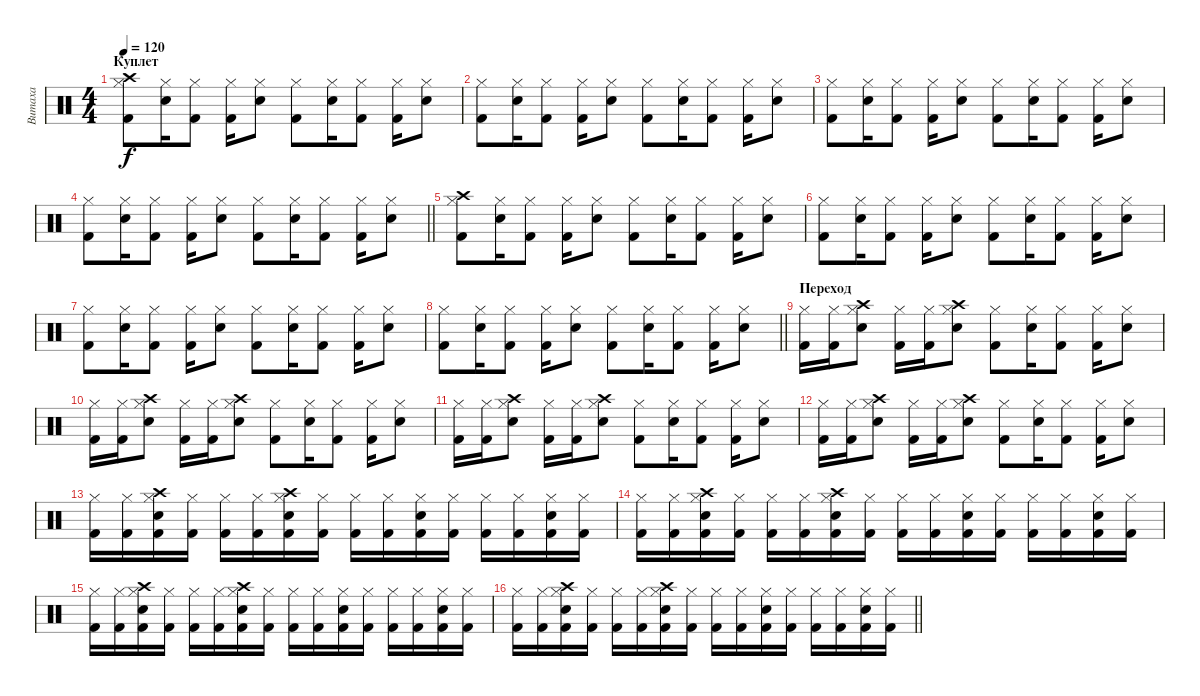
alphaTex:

\track ("Витаха" "Витаха") {instrument percussion}
\staff {score}
\articulation defaults
\ts (4 4)
\section ("" "Куплет")
\tempo 120
\clef neutral
\ks c
("Kick (hit) 2" "Crash high (hit)" "Hi-Hat (closed)").8{dy f} ("Electric Snare (hit)" "Hi-Hat (closed)").16 ("Kick (hit) 2" "Hi-Hat (closed)").8 ("Kick (hit) 2" "Hi-Hat (closed)").16 ("Electric Snare (hit)" "Hi-Hat (closed)").8 ("Kick (hit) 2" "Hi-Hat (closed)").8 ("Electric Snare (hit)" "Hi-Hat (closed)").16 ("Kick (hit) 2" "Hi-Hat (closed)").8 ("Kick (hit) 2" "Hi-Hat (closed)").16 ("Electric Snare (hit)" "Hi-Hat (closed)").8 |
("Kick (hit) 2" "Hi-Hat (closed)").8 ("Electric Snare (hit)" "Hi-Hat (closed)").16 ("Kick (hit) 2" "Hi-Hat (closed)").8 ("Kick (hit) 2" "Hi-Hat (closed)").16 ("Electric Snare (hit)" "Hi-Hat (closed)").8 ("Kick (hit) 2" "Hi-Hat (closed)").8 ("Electric Snare (hit)" "Hi-Hat (closed)").16 ("Kick (hit) 2" "Hi-Hat (closed)").8 ("Kick (hit) 2" "Hi-Hat (closed)").16 ("Electric Snare (hit)" "Hi-Hat (closed)").8 |
("Kick (hit) 2" "Hi-Hat (closed)").8 ("Electric Snare (hit)" "Hi-Hat (closed)").16 ("Kick (hit) 2" "Hi-Hat (closed)").8 ("Kick (hit) 2" "Hi-Hat (closed)").16 ("Electric Snare (hit)" "Hi-Hat (closed)").8 ("Kick (hit) 2" "Hi-Hat (closed)").8 ("Electric Snare (hit)" "Hi-Hat (closed)").16 ("Kick (hit) 2" "Hi-Hat (closed)").8 ("Kick (hit) 2" "Hi-Hat (closed)").16 ("Electric Snare (hit)" "Hi-Hat (closed)").8 |
\barLineRight lightlight
("Kick (hit) 2" "Hi-Hat (closed)").8 ("Electric Snare (hit)" "Hi-Hat (closed)").16 ("Kick (hit) 2" "Hi-Hat (closed)").8 ("Kick (hit) 2" "Hi-Hat (closed)").16 ("Electric Snare (hit)" "Hi-Hat (closed)").8 ("Kick (hit) 2" "Hi-Hat (closed)").8 ("Electric Snare (hit)" "Hi-Hat (closed)").16 ("Kick (hit) 2" "Hi-Hat (closed)").8 ("Kick (hit) 2" "Hi-Hat (closed)").16 ("Electric Snare (hit)" "Hi-Hat (closed)").8 |
("Kick (hit) 2" "Crash high (hit)" "Hi-Hat (closed)").8 ("Electric Snare (hit)" "Hi-Hat (closed)").16 ("Kick (hit) 2" "Hi-Hat (closed)").8 ("Kick (hit) 2" "Hi-Hat (closed)").16 ("Electric Snare (hit)" "Hi-Hat (closed)").8 ("Kick (hit) 2" "Hi-Hat (closed)").8 ("Electric Snare (hit)" "Hi-Hat (closed)").16 ("Kick (hit) 2" "Hi-Hat (closed)").8 ("Kick (hit) 2" "Hi-Hat (closed)").16 ("Electric Snare (hit)" "Hi-Hat (closed)").8 |
("Kick (hit) 2" "Hi-Hat (closed)").8 ("Electric Snare (hit)" "Hi-Hat (closed)").16 ("Kick (hit) 2" "Hi-Hat (closed)").8 ("Kick (hit) 2" "Hi-Hat (closed)").16 ("Electric Snare (hit)" "Hi-Hat (closed)").8 ("Kick (hit) 2" "Hi-Hat (closed)").8 ("Electric Snare (hit)" "Hi-Hat (closed)").16 ("Kick (hit) 2" "Hi-Hat (closed)").8 ("Kick (hit) 2" "Hi-Hat (closed)").16 ("Electric Snare (hit)" "Hi-Hat (closed)").8 |
("Kick (hit) 2" "Hi-Hat (closed)").8 ("Electric Snare (hit)" "Hi-Hat (closed)").16 ("Kick (hit) 2" "Hi-Hat (closed)").8 ("Kick (hit) 2" "Hi-Hat (closed)").16 ("Electric Snare (hit)" "Hi-Hat (closed)").8 ("Kick (hit) 2" "Hi-Hat (closed)").8 ("Electric Snare (hit)" "Hi-Hat (closed)").16 ("Kick (hit) 2" "Hi-Hat (closed)").8 ("Kick (hit) 2" "Hi-Hat (closed)").16 ("Electric Snare (hit)" "Hi-Hat (closed)").8 |
\barLineRight lightlight
("Kick (hit) 2" "Hi-Hat (closed)").8 ("Electric Snare (hit)" "Hi-Hat (closed)").16 ("Kick (hit) 2" "Hi-Hat (closed)").8 ("Kick (hit) 2" "Hi-Hat (closed)").16 ("Electric Snare (hit)" "Hi-Hat (closed)").8 ("Kick (hit) 2" "Hi-Hat (closed)").8 ("Electric Snare (hit)" "Hi-Hat (closed)").16 ("Kick (hit) 2" "Hi-Hat (closed)").8 ("Kick (hit) 2" "Hi-Hat (closed)").16 ("Electric Snare (hit)" "Hi-Hat (closed)").8 |
\section ("" "Переход")
("Kick (hit) 2" "Hi-Hat (closed)").16 ("Kick (hit) 2" "Hi-Hat (closed)").16 ("Electric Snare (hit)" "Hi-Hat (closed)" "Crash high (hit)").8 ("Kick (hit) 2" "Hi-Hat (closed)").16 ("Kick (hit) 2" "Hi-Hat (closed)").16 ("Electric Snare (hit)" "Hi-Hat (closed)" "Crash high (hit)").8 ("Kick (hit) 2" "Hi-Hat (closed)").8 ("Electric Snare (hit)" "Hi-Hat (closed)").16 ("Kick (hit) 2" "Hi-Hat (closed)").8 ("Kick (hit) 2" "Hi-Hat (closed)").16 ("Electric Snare (hit)" "Hi-Hat (closed)").8 |
("Kick (hit) 2" "Hi-Hat (closed)").16 ("Kick (hit) 2" "Hi-Hat (closed)").16 ("Electric Snare (hit)" "Hi-Hat (closed)" "Crash high (hit)").8 ("Kick (hit) 2" "Hi-Hat (closed)").16 ("Kick (hit) 2" "Hi-Hat (closed)").16 ("Electric Snare (hit)" "Hi-Hat (closed)" "Crash high (hit)").8 ("Kick (hit) 2" "Hi-Hat (closed)").8 ("Electric Snare (hit)" "Hi-Hat (closed)").16 ("Kick (hit) 2" "Hi-Hat (closed)").8 ("Kick (hit) 2" "Hi-Hat (closed)").16 ("Electric Snare (hit)" "Hi-Hat (closed)").8 |
("Kick (hit) 2" "Hi-Hat (closed)").16 ("Kick (hit) 2" "Hi-Hat (closed)").16 ("Electric Snare (hit)" "Hi-Hat (closed)" "Crash high (hit)").8 ("Kick (hit) 2" "Hi-Hat (closed)").16 ("Kick (hit) 2" "Hi-Hat (closed)").16 ("Electric Snare (hit)" "Hi-Hat (closed)" "Crash high (hit)").8 ("Kick (hit) 2" "Hi-Hat (closed)").8 ("Electric Snare (hit)" "Hi-Hat (closed)").16 ("Kick (hit) 2" "Hi-Hat (closed)").8 ("Kick (hit) 2" "Hi-Hat (closed)").16 ("Electric Snare (hit)" "Hi-Hat (closed)").8 |
("Kick (hit) 2" "Hi-Hat (closed)").16 ("Kick (hit) 2" "Hi-Hat (closed)").16 ("Electric Snare (hit)" "Hi-Hat (closed)" "Crash high (hit)").8 ("Kick (hit) 2" "Hi-Hat (closed)").16 ("Kick (hit) 2" "Hi-Hat (closed)").16 ("Electric Snare (hit)" "Hi-Hat (closed)" "Crash high (hit)").8 ("Kick (hit) 2" "Hi-Hat (closed)").8 ("Electric Snare (hit)" "Hi-Hat (closed)").16 ("Kick (hit) 2" "Hi-Hat (closed)").8 ("Kick (hit) 2" "Hi-Hat (closed)").16 ("Electric Snare (hit)" "Hi-Hat (closed)").8 |
("Kick (hit) 2" "Hi-Hat (closed)").16 ("Kick (hit) 2" "Hi-Hat (closed)").16 ("Electric Snare (hit)" "Hi-Hat (closed)" "Crash high (hit)" "Kick (hit) 2").16 ("Kick (hit) 2" "Hi-Hat (closed)").16 ("Kick (hit) 2" "Hi-Hat (closed)").16 ("Kick (hit) 2" "Hi-Hat (closed)").16 ("Electric Snare (hit)" "Hi-Hat (closed)" "Crash high (hit)" "Kick (hit) 2").16 ("Kick (hit) 2" "Hi-Hat (closed)").16 ("Kick (hit) 2" "Hi-Hat (closed)").16 ("Kick (hit) 2" "Hi-Hat (closed)").16 ("Electric Snare (hit)" "Hi-Hat (closed)" "Kick (hit) 2").16 ("Kick (hit) 2" "Hi-Hat (closed)").16 ("Kick (hit) 2" "Hi-Hat (closed)").16 ("Kick (hit) 2" "Hi-Hat (closed)").16 ("Electric Snare (hit)" "Hi-Hat (closed)" "Kick (hit) 2").16 ("Kick (hit) 2" "Hi-Hat (closed)").16 |
("Kick (hit) 2" "Hi-Hat (closed)").16 ("Kick (hit) 2" "Hi-Hat (closed)").16 ("Electric Snare (hit)" "Hi-Hat (closed)" "Crash high (hit)" "Kick (hit) 2").16 ("Kick (hit) 2" "Hi-Hat (closed)").16 ("Kick (hit) 2" "Hi-Hat (closed)").16 ("Kick (hit) 2" "Hi-Hat (closed)").16 ("Electric Snare (hit)" "Hi-Hat (closed)" "Crash high (hit)" "Kick (hit) 2").16 ("Kick (hit) 2" "Hi-Hat (closed)").16 ("Kick (hit) 2" "Hi-Hat (closed)").16 ("Kick (hit) 2" "Hi-Hat (closed)").16 ("Electric Snare (hit)" "Hi-Hat (closed)" "Kick (hit) 2").16 ("Kick (hit) 2" "Hi-Hat (closed)").16 ("Kick (hit) 2" "Hi-Hat (closed)").16 ("Kick (hit) 2" "Hi-Hat (closed)").16 ("Electric Snare (hit)" "Hi-Hat (closed)" "Kick (hit) 2").16 ("Kick (hit) 2" "Hi-Hat (closed)").16 |
("Kick (hit) 2" "Hi-Hat (closed)").16 ("Kick (hit) 2" "Hi-Hat (closed)").16 ("Electric Snare (hit)" "Hi-Hat (closed)" "Crash high (hit)" "Kick (hit) 2").16 ("Kick (hit) 2" "Hi-Hat (closed)").16 ("Kick (hit) 2" "Hi-Hat (closed)").16 ("Kick (hit) 2" "Hi-Hat (closed)").16 ("Electric Snare (hit)" "Hi-Hat (closed)" "Crash high (hit)" "Kick (hit) 2").16 ("Kick (hit) 2" "Hi-Hat (closed)").16 ("Kick (hit) 2" "Hi-Hat (closed)").16 ("Kick (hit) 2" "Hi-Hat (closed)").16 ("Electric Snare (hit)" "Hi-Hat (closed)" "Kick (hit) 2").16 ("Kick (hit) 2" "Hi-Hat (closed)").16 ("Kick (hit) 2" "Hi-Hat (closed)").16 ("Kick (hit) 2" "Hi-Hat (closed)").16 ("Electric Snare (hit)" "Hi-Hat (closed)" "Kick (hit) 2").16 ("Kick (hit) 2" "Hi-Hat (closed)").16 |
\barLineRight lightlight
("Kick (hit) 2" "Hi-Hat (closed)").16 ("Kick (hit) 2" "Hi-Hat (closed)").16 ("Electric Snare (hit)" "Hi-Hat (closed)" "Crash high (hit)" "Kick (hit) 2").16 ("Kick (hit) 2" "Hi-Hat (closed)").16 ("Kick (hit) 2" "Hi-Hat (closed)").16 ("Kick (hit) 2" "Hi-Hat (closed)").16 ("Electric Snare (hit)" "Hi-Hat (closed)" "Crash high (hit)" "Kick (hit) 2").16 ("Kick (hit) 2" "Hi-Hat (closed)").16 ("Kick (hit) 2" "Hi-Hat (closed)").16 ("Kick (hit) 2" "Hi-Hat (closed)").16 ("Electric Snare (hit)" "Hi-Hat (closed)" "Kick (hit) 2").16 ("Kick (hit) 2" "Hi-Hat (closed)").16 ("Kick (hit) 2" "Hi-Hat (closed)").16 ("Kick (hit) 2" "Hi-Hat (closed)").16 ("Electric Snare (hit)" "Hi-Hat (closed)" "Kick (hit) 2").16 ("Kick (hit) 2" "Hi-Hat (closed)").16
